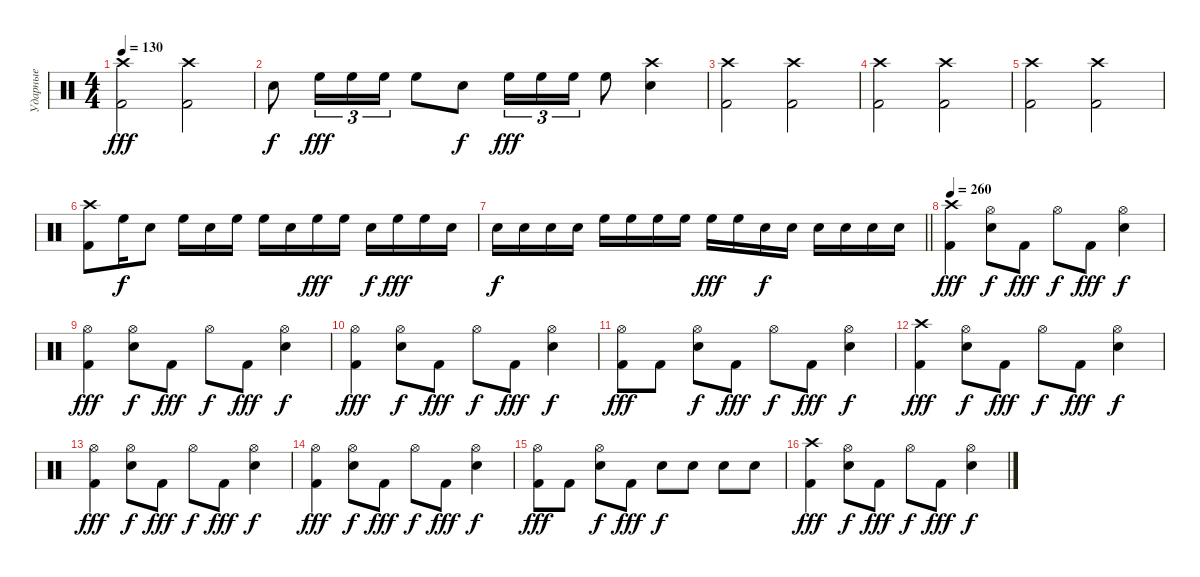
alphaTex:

\track ("Ударные" "Ударные") {instrument percussion}
\staff {score}
\articulation defaults
\ts (4 4)
\tempo 130
\clef neutral
\ks c
("Kick (hit) 2" "Crash high (hit)").2{dy fff} ("Kick (hit) 2" "Crash high (hit)").2 |
"Snare (hit) 2".8{dy f} "High Floor Tom (hit)".16{tu (3 2) dy fff} "High Floor Tom (hit)".16{tu (3 2)} "High Floor Tom (hit)".16{tu (3 2)} "High Floor Tom (hit)".8 "Snare (hit) 2".8{dy f} "High Floor Tom (hit)".16{tu (3 2) dy fff} "High Floor Tom (hit)".16{tu (3 2)} "High Floor Tom (hit)".16{tu (3 2)} "High Floor Tom (hit)".8 ("Snare (hit) 2" "Crash high (hit)").4 |
("Kick (hit) 2" "Crash high (hit)").2 ("Kick (hit) 2" "Crash high (hit)").2 |
("Kick (hit) 2" "Crash high (hit)").2 ("Kick (hit) 2" "Crash high (hit)").2 |
("Kick (hit) 2" "Crash high (hit)").2 ("Kick (hit) 2" "Crash high (hit)").2 |
("Kick (hit) 2" "Crash high (hit)").8 "High Floor Tom (hit)".16{dy f} "Snare (hit) 2".8 "High Floor Tom (hit)".16 "Snare (hit) 2".16 "High Floor Tom (hit)".16 "High Floor Tom (hit)".16 "Snare (hit) 2".16 "High Floor Tom (hit)".16{dy fff} "High Floor Tom (hit)".16 "Snare (hit) 2".16{dy f} "High Floor Tom (hit)".16{dy fff} "High Floor Tom (hit)".16 "Snare (hit) 2".16 |
\barLineRight lightlight "Snare (hit) 2".16{dy f} "Snare (hit) 2".16 "Snare (hit) 2".16 "Snare (hit) 2".16 "High Floor Tom (hit)".16 "High Floor Tom (hit)".16 "High Floor Tom (hit)".16 "High Floor Tom (hit)".16 "High Floor Tom (hit)".16{dy fff} "High Floor Tom (hit)".16 "Snare (hit) 2".16{dy f} "Snare (hit) 2".16 "Snare (hit) 2".16 "Snare (hit) 2".16 "Snare (hit) 2".16 "Snare (hit) 2".16
|
\tempo 260
("Kick (hit) 2" "Crash high (hit)").4{dy fff} ("Snare (hit) 2" "Hi-Hat (open)").8{dy f} "Kick (hit) 2".8{dy fff} "Hi-Hat (open)".8{dy f} "Kick (hit) 2".8{dy fff} ("Snare (hit) 2" "Hi-Hat (open)").4{dy f} |
("Kick (hit) 2" "Hi-Hat (open)").4{dy fff} ("Snare (hit) 2" "Hi-Hat (open)").8{dy f} "Kick (hit) 2".8{dy fff} "Hi-Hat (open)".8{dy f} "Kick (hit) 2".8{dy fff} ("Snare (hit) 2" "Hi-Hat (open)").4{dy f} |
("Kick (hit) 2" "Hi-Hat (open)").4{dy fff} ("Snare (hit) 2" "Hi-Hat (open)").8{dy f} "Kick (hit) 2".8{dy fff} "Hi-Hat (open)".8{dy f} "Kick (hit) 2".8{dy fff} ("Snare (hit) 2" "Hi-Hat (open)").4{dy f} |
("Kick (hit) 2" "Hi-Hat (open)").8{dy fff} "Kick (hit) 2".8 ("Snare (hit) 2" "Hi-Hat (open)").8{dy f} "Kick (hit) 2".8{dy fff} "Hi-Hat (open)".8{dy f} "Kick (hit) 2".8{dy fff} ("Snare (hit) 2" "Hi-Hat (open)").4{dy f} |
("Kick (hit) 2" "Crash high (hit)").4{dy fff} ("Snare (hit) 2" "Hi-Hat (open)").8{dy f} "Kick (hit) 2".8{dy fff} "Hi-Hat (open)".8{dy f} "Kick (hit) 2".8{dy fff} ("Snare (hit) 2" "Hi-Hat (open)").4{dy f} |
("Kick (hit) 2" "Hi-Hat (open)").4{dy fff} ("Snare (hit) 2" "Hi-Hat (open)").8{dy f} "Kick (hit) 2".8{dy fff} "Hi-Hat (open)".8{dy f} "Kick (hit) 2".8{dy fff} ("Snare (hit) 2" "Hi-Hat (open)").4{dy f} |
("Kick (hit) 2" "Hi-Hat (open)").4{dy fff} ("Snare (hit) 2" "Hi-Hat (open)").8{dy f} "Kick (hit) 2".8{dy fff} "Hi-Hat (open)".8{dy f} "Kick (hit) 2".8{dy fff} ("Snare (hit) 2" "Hi-Hat (open)").4{dy f} |
("Kick (hit) 2" "Hi-Hat (open)").8{dy fff} "Kick (hit) 2".8 ("Snare (hit) 2" "Hi-Hat (open)").8{dy f} "Kick (hit) 2".8{dy fff} "Snare (hit) 2".8{dy f} "Snare (hit) 2".8 "Snare (hit) 2".8 "Snare (hit) 2".8 |
("Kick (hit) 2" "Crash high (hit)").4{dy fff} ("Snare (hit) 2" "Hi-Hat (open)").8{dy f} "Kick (hit) 2".8{dy fff} "Hi-Hat (open)".8{dy f} "Kick (hit) 2".8{dy fff} ("Snare (hit) 2" "Hi-Hat (open)").4{dy f}
